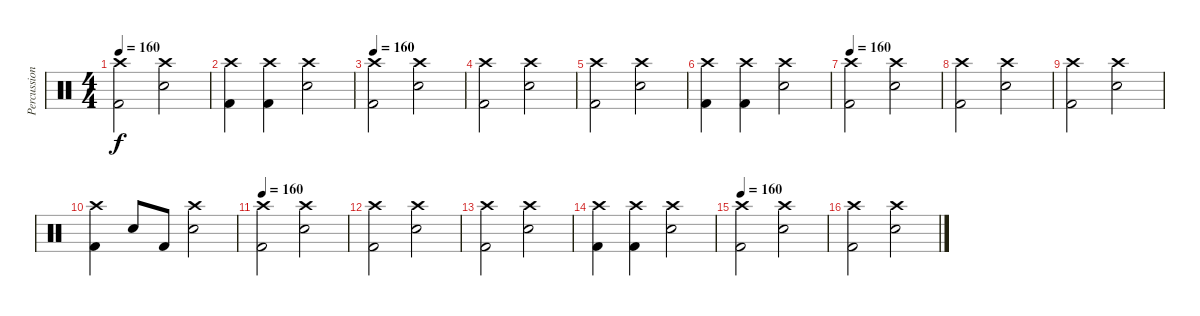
\track ("Percussion [Patrick Wilson]" "Percussion") {instrument percussion}
\staff {score}
\articulation defaults
\ts (4 4)
\tempo 160
\clef neutral
\ks c
("Crash high (hit)" "Kick (hit) 2").2{dy f} ("Crash high (hit)" "Snare (hit) 2").2 |
("Crash high (hit)" "Kick (hit) 2").4 ("Crash high (hit)" "Kick (hit) 2").4 ("Crash high (hit)" "Snare (hit) 2").2 |
\tempo 160
("Crash high (hit)" "Kick (hit) 2").2{volume 13} ("Crash high (hit)" "Snare (hit) 2").2 |
("Crash high (hit)" "Kick (hit) 2").2 ("Crash high (hit)" "Snare (hit) 2").2 |
("Crash high (hit)" "Kick (hit) 2").2 ("Crash high (hit)" "Snare (hit) 2").2 |
("Crash high (hit)" "Kick (hit) 2").4 ("Crash high (hit)" "Kick (hit) 2").4 ("Crash high (hit)" "Snare (hit) 2").2 |
\tempo 160
("Crash high (hit)" "Kick (hit) 2").2{volume 13} ("Crash high (hit)" "Snare (hit) 2").2 |
("Crash high (hit)" "Kick (hit) 2").2 ("Crash high (hit)" "Snare (hit) 2").2 |
("Crash high (hit)" "Kick (hit) 2").2 ("Crash high (hit)" "Snare (hit) 2").2 |
("Crash high (hit)" "Kick (hit) 2").4 "Snare (hit) 2".8 "Kick (hit) 2".8 ("Crash high (hit)" "Snare (hit) 2").2 |
\tempo 160
("Crash high (hit)" "Kick (hit) 2").2{volume 13} ("Crash high (hit)" "Snare (hit) 2").2 |
("Crash high (hit)" "Kick (hit) 2").2 ("Crash high (hit)" "Snare (hit) 2").2 |
("Crash high (hit)" "Kick (hit) 2").2 ("Crash high (hit)" "Snare (hit) 2").2 |
("Crash high (hit)" "Kick (hit) 2").4 ("Crash high (hit)" "Kick (hit) 2").4 ("Crash high (hit)" "Snare (hit) 2").2 |
\tempo 160
("Crash high (hit)" "Kick (hit) 2").2{volume 13} ("Crash high (hit)" "Snare (hit) 2").2 |
("Crash high (hit)" "Kick (hit) 2").2 ("Crash high (hit)" "Snare (hit) 2").2
